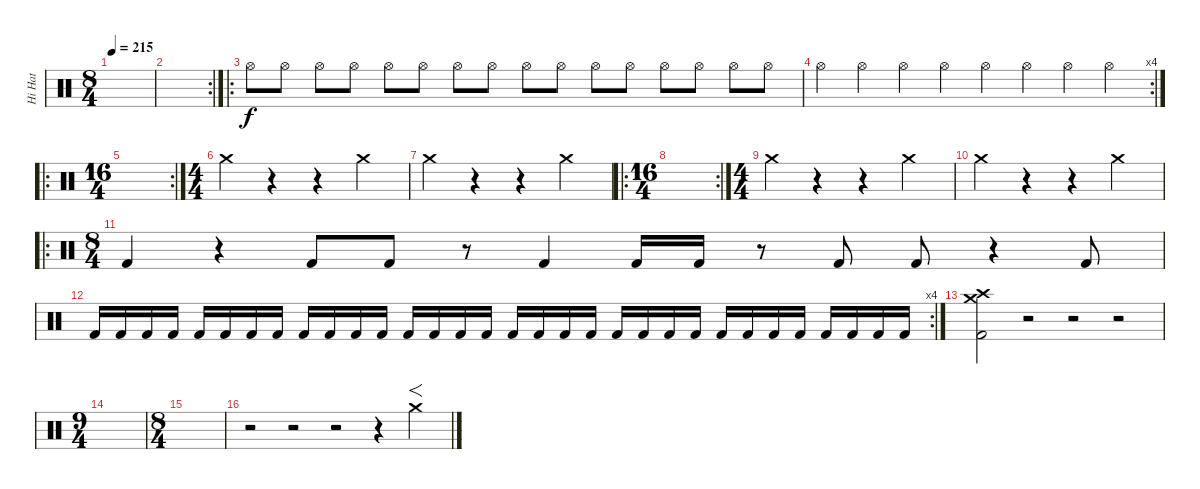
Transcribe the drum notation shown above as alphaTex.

\track ("Hi Hat" "Hi Hat") {instrument percussion}
\staff {score}
\articulation defaults
\ts (8 4)
\tempo 215
\clef neutral
\ks c
|
\rc 2
|
\ro "Hi-Hat (open)".8 "Hi-Hat (open)".8 "Hi-Hat (open)".8 "Hi-Hat (open)".8 "Hi-Hat (open)".8 "Hi-Hat (open)".8 "Hi-Hat (open)".8 "Hi-Hat (open)".8 "Hi-Hat (open)".8 "Hi-Hat (open)".8 "Hi-Hat (open)".8 "Hi-Hat (open)".8 "Hi-Hat (open)".8 "Hi-Hat (open)".8 "Hi-Hat (open)".8 "Hi-Hat (open)".8
|
\rc 4 "Hi-Hat (open)".4 "Hi-Hat (open)".4 "Hi-Hat (open)".4 "Hi-Hat (open)".4 "Hi-Hat (open)".4 "Hi-Hat (open)".4 "Hi-Hat (open)".4 "Hi-Hat (open)".4
|
\ro
\rc 2
\ts (16 4)
|
\ts (4 4)
"Crash medium (hit)".4 r.4 r.4 "Crash medium (hit)".4 |
"Crash medium (hit)".4 r.4 r.4 "Crash medium (hit)".4 |
\ro
\rc 2
\ts (16 4)
|
\ts (4 4)
"Crash medium (hit)".4 r.4 r.4 "Crash medium (hit)".4 |
"Crash medium (hit)".4 r.4 r.4 "Crash medium (hit)".4 |
\ro
\ts (8 4)
"Kick (hit) 2".4 r.4 "Kick (hit) 2".8 "Kick (hit) 2".8 r.8 "Kick (hit) 2".4 "Kick (hit) 2".16 "Kick (hit) 2".16 r.8 "Kick (hit) 2".8 "Kick (hit) 2".8 r.4 "Kick (hit) 2".8 |
\rc 4 "Kick (hit) 2".16 "Kick (hit) 2".16 "Kick (hit) 2".16 "Kick (hit) 2".16 "Kick (hit) 2".16 "Kick (hit) 2".16 "Kick (hit) 2".16 "Kick (hit) 2".16 "Kick (hit) 2".16 "Kick (hit) 2".16 "Kick (hit) 2".16 "Kick (hit) 2".16 "Kick (hit) 2".16 "Kick (hit) 2".16 "Kick (hit) 2".16 "Kick (hit) 2".16 "Kick (hit) 2".16 "Kick (hit) 2".16 "Kick (hit) 2".16 "Kick (hit) 2".16 "Kick (hit) 2".16 "Kick (hit) 2".16 "Kick (hit) 2".16 "Kick (hit) 2".16 "Kick (hit) 2".16 "Kick (hit) 2".16 "Kick (hit) 2".16 "Kick (hit) 2".16 "Kick (hit) 2".16 "Kick (hit) 2".16 "Kick (hit) 2".16 "Kick (hit) 2".16
|
("Kick (hit) 2" "Crash high (hit)" "Crash medium (hit)").2 r.2 r.2 r.2 |
\ts (9 4)
|
\ts (8 4)
|
r.2 r.2 r.2 r.4 "Crash medium (hit)".4{f}
